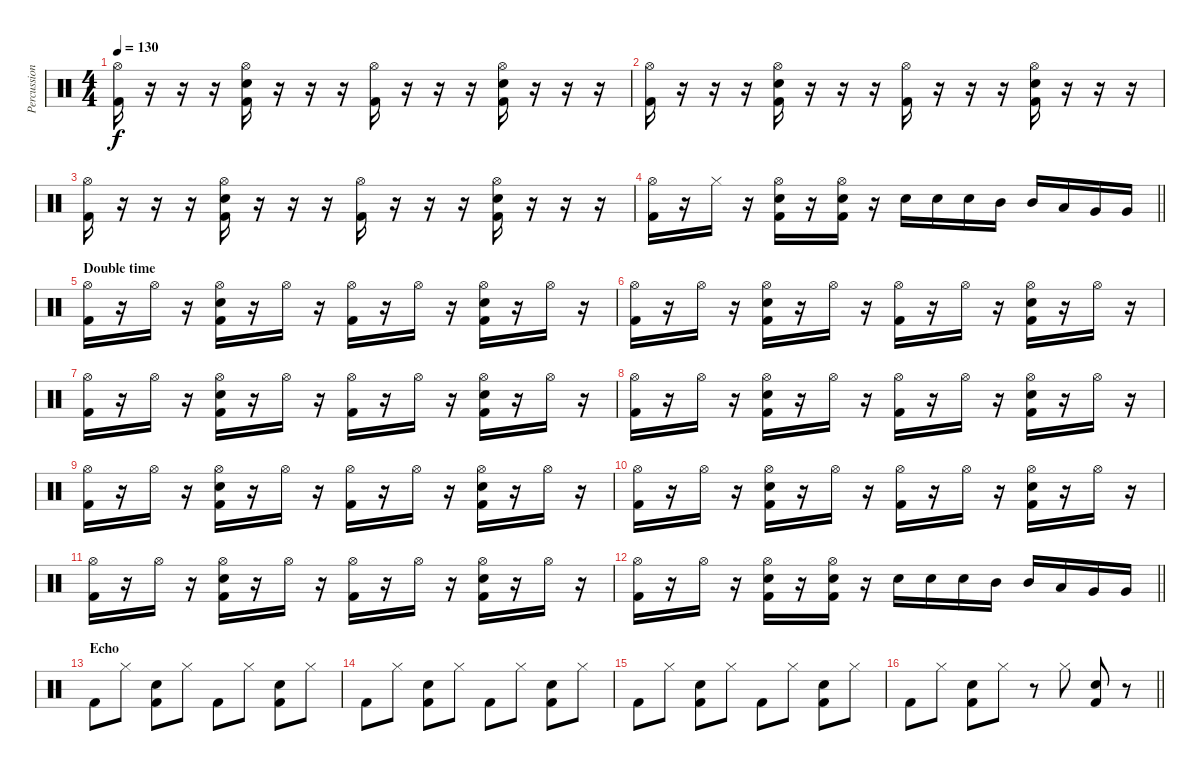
\track ("Percussion" "Percussion") {instrument percussion}
\staff {score}
\articulation defaults
\ts (4 4)
\tempo 130
\clef neutral
\ks c
("Hi-Hat (open)" "Kick (hit) 2").16{dy f} r.16 r.16 r.16 ("Hi-Hat (open)" "Electric Snare (hit)" "Kick (hit) 2").16 r.16 r.16 r.16 ("Hi-Hat (open)" "Kick (hit) 2").16 r.16 r.16 r.16 ("Hi-Hat (open)" "Electric Snare (hit)" "Kick (hit) 2").16 r.16 r.16 r.16 |
("Hi-Hat (open)" "Kick (hit) 2").16 r.16 r.16 r.16 ("Hi-Hat (open)" "Electric Snare (hit)" "Kick (hit) 2").16 r.16 r.16 r.16 ("Hi-Hat (open)" "Kick (hit) 2").16 r.16 r.16 r.16 ("Hi-Hat (open)" "Electric Snare (hit)" "Kick (hit) 2").16 r.16 r.16 r.16 |
("Hi-Hat (open)" "Kick (hit) 2").16 r.16 r.16 r.16 ("Hi-Hat (open)" "Electric Snare (hit)" "Kick (hit) 2").16 r.16 r.16 r.16 ("Hi-Hat (open)" "Kick (hit) 2").16 r.16 r.16 r.16 ("Hi-Hat (open)" "Electric Snare (hit)" "Kick (hit) 2").16 r.16 r.16 r.16 |
\barLineRight lightlight
("Hi-Hat (open)" "Kick (hit) 2").16 r.16 "Hi-Hat (closed)".16 r.16 ("Hi-Hat (open)" "Electric Snare (hit)" "Kick (hit) 2").16 r.16 ("Hi-Hat (open)" "Electric Snare (hit)" "Kick (hit) 2").16 r.16 "Electric Snare (hit)".16 "Electric Snare (hit)".16 "Electric Snare (hit)".16 "Mid Tom (hit)".16 "Mid Tom (hit)".16 "Low Tom (hit)".16 "Very Low Tom (hit)".16 "Very Low Tom (hit)".16 |
\section ("" "Double time")
("Hi-Hat (open)" "Kick (hit) 2").16 r.16 "Hi-Hat (open)".16 r.16 ("Hi-Hat (open)" "Electric Snare (hit)" "Kick (hit) 2").16 r.16 "Hi-Hat (open)".16 r.16 ("Hi-Hat (open)" "Kick (hit) 2").16 r.16 "Hi-Hat (open)".16 r.16 ("Hi-Hat (open)" "Electric Snare (hit)" "Kick (hit) 2").16 r.16 "Hi-Hat (open)".16 r.16 |
("Hi-Hat (open)" "Kick (hit) 2").16 r.16 "Hi-Hat (open)".16 r.16 ("Hi-Hat (open)" "Electric Snare (hit)" "Kick (hit) 2").16 r.16 "Hi-Hat (open)".16 r.16 ("Hi-Hat (open)" "Kick (hit) 2").16 r.16 "Hi-Hat (open)".16 r.16 ("Hi-Hat (open)" "Electric Snare (hit)" "Kick (hit) 2").16 r.16 "Hi-Hat (open)".16 r.16 |
("Hi-Hat (open)" "Kick (hit) 2").16 r.16 "Hi-Hat (open)".16 r.16 ("Hi-Hat (open)" "Electric Snare (hit)" "Kick (hit) 2").16 r.16 "Hi-Hat (open)".16 r.16 ("Hi-Hat (open)" "Kick (hit) 2").16 r.16 "Hi-Hat (open)".16 r.16 ("Hi-Hat (open)" "Electric Snare (hit)" "Kick (hit) 2").16 r.16 "Hi-Hat (open)".16 r.16 |
("Hi-Hat (open)" "Kick (hit) 2").16 r.16 "Hi-Hat (open)".16 r.16 ("Hi-Hat (open)" "Electric Snare (hit)" "Kick (hit) 2").16 r.16 "Hi-Hat (open)".16 r.16 ("Hi-Hat (open)" "Kick (hit) 2").16 r.16 "Hi-Hat (open)".16 r.16 ("Hi-Hat (open)" "Electric Snare (hit)" "Kick (hit) 2").16 r.16 "Hi-Hat (open)".16 r.16 |
("Hi-Hat (open)" "Kick (hit) 2").16 r.16 "Hi-Hat (open)".16 r.16 ("Hi-Hat (open)" "Electric Snare (hit)" "Kick (hit) 2").16 r.16 "Hi-Hat (open)".16 r.16 ("Hi-Hat (open)" "Kick (hit) 2").16 r.16 "Hi-Hat (open)".16 r.16 ("Hi-Hat (open)" "Electric Snare (hit)" "Kick (hit) 2").16 r.16 "Hi-Hat (open)".16 r.16 |
("Hi-Hat (open)" "Kick (hit) 2").16 r.16 "Hi-Hat (open)".16 r.16 ("Hi-Hat (open)" "Electric Snare (hit)" "Kick (hit) 2").16 r.16 "Hi-Hat (open)".16 r.16 ("Hi-Hat (open)" "Kick (hit) 2").16 r.16 "Hi-Hat (open)".16 r.16 ("Hi-Hat (open)" "Electric Snare (hit)" "Kick (hit) 2").16 r.16 "Hi-Hat (open)".16 r.16 |
("Hi-Hat (open)" "Kick (hit) 2").16 r.16 "Hi-Hat (open)".16 r.16 ("Hi-Hat (open)" "Electric Snare (hit)" "Kick (hit) 2").16 r.16 "Hi-Hat (open)".16 r.16 ("Hi-Hat (open)" "Kick (hit) 2").16 r.16 "Hi-Hat (open)".16 r.16 ("Hi-Hat (open)" "Electric Snare (hit)" "Kick (hit) 2").16 r.16 "Hi-Hat (open)".16 r.16 |
\barLineRight lightlight
("Hi-Hat (open)" "Kick (hit) 2").16 r.16 "Hi-Hat (open)".16 r.16 ("Hi-Hat (open)" "Electric Snare (hit)" "Kick (hit) 2").16 r.16 ("Hi-Hat (open)" "Electric Snare (hit)" "Kick (hit) 2").16 r.16 "Electric Snare (hit)".16 "Electric Snare (hit)".16 "Electric Snare (hit)".16 "Mid Tom (hit)".16 "Mid Tom (hit)".16 "Low Tom (hit)".16 "Very Low Tom (hit)".16 "Very Low Tom (hit)".16 |
\section ("" "Echo")
"Kick (hit) 2".8 "Hi-Hat (closed)".8 ("Electric Snare (hit)" "Kick (hit) 2").8 "Hi-Hat (closed)".8 "Kick (hit) 2".8 "Hi-Hat (closed)".8 ("Electric Snare (hit)" "Kick (hit) 2").8 "Hi-Hat (closed)".8 |
"Kick (hit) 2".8 "Hi-Hat (closed)".8 ("Electric Snare (hit)" "Kick (hit) 2").8 "Hi-Hat (closed)".8 "Kick (hit) 2".8 "Hi-Hat (closed)".8 ("Electric Snare (hit)" "Kick (hit) 2").8 "Hi-Hat (closed)".8 |
"Kick (hit) 2".8 "Hi-Hat (closed)".8 ("Electric Snare (hit)" "Kick (hit) 2").8 "Hi-Hat (closed)".8 "Kick (hit) 2".8 "Hi-Hat (closed)".8 ("Electric Snare (hit)" "Kick (hit) 2").8 "Hi-Hat (closed)".8 |
\barLineRight lightlight "Kick (hit) 2".8 "Hi-Hat (closed)".8
("Electric Snare (hit)" "Kick (hit) 2").8 "Hi-Hat (closed)".8 r.8 "Hi-Hat (closed)".8 ("Electric Snare (hit)" "Kick (hit) 2").8 r.8
